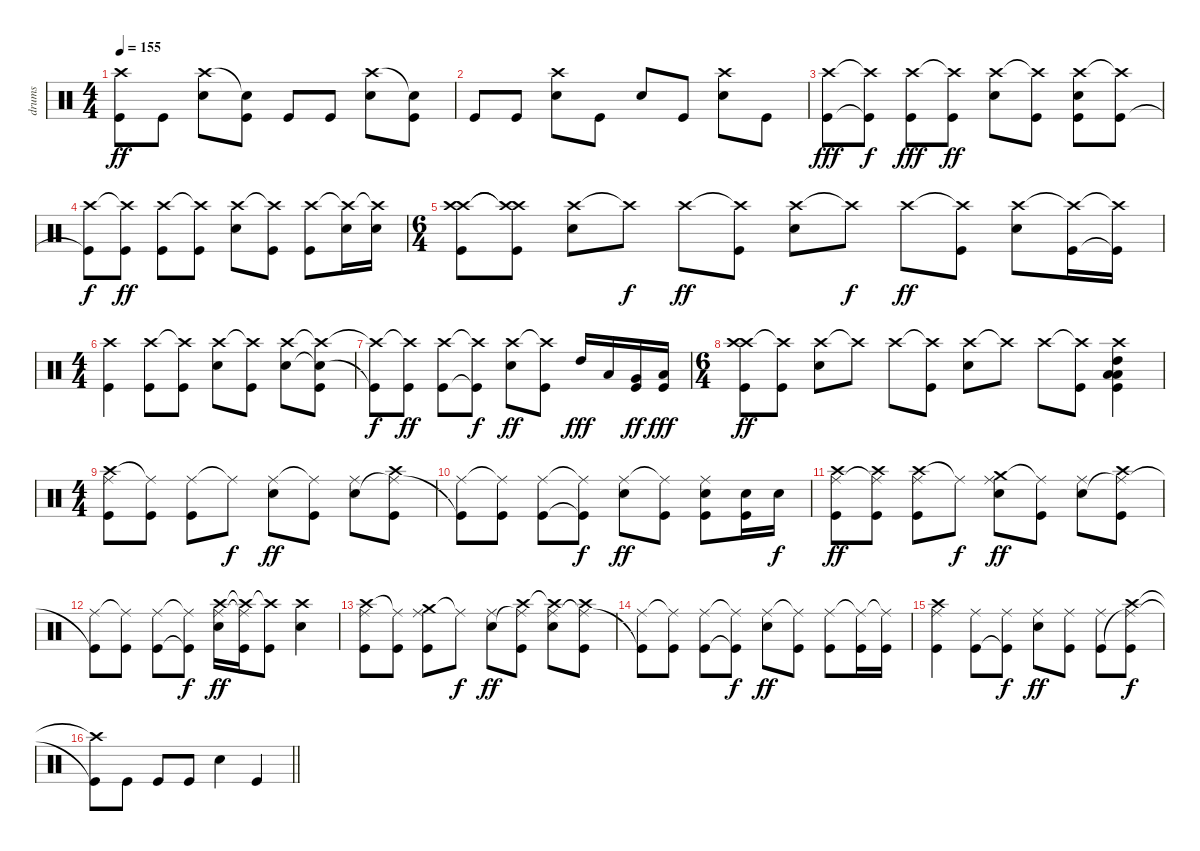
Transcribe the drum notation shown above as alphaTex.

\track ("drums" "drums") {instrument percussion}
\staff {score}
\articulation defaults
\ts (4 4)
\tempo 155
\clef neutral
\ks c
("Crash high (hit)"{t} "Kick (hit)"{t}).8{dy ff} "Kick (hit)".8 ("Crash high (hit)" "Electric Snare (hit)").8 ("Electric Snare (hit)"{t} "Kick (hit)").8 "Kick (hit)".8 "Kick (hit)".8 ("Crash high (hit)" "Electric Snare (hit)").8 ("Electric Snare (hit)"{t} "Kick (hit)").8 |
"Kick (hit)".8 "Kick (hit)".8 ("Crash high (hit)" "Electric Snare (hit)").8 "Kick (hit)".8 "Electric Snare (hit)".8 "Kick (hit)".8 ("Crash high (hit)" "Electric Snare (hit)").8 "Kick (hit)".8 |
("Crash high (hit)" "Kick (hit)").8{dy fff} ("Crash high (hit)"{t} "Kick (hit)"{t}).8{dy f} ("Crash high (hit)" "Kick (hit)").8{dy fff} ("Crash high (hit)"{t} "Kick (hit)").8{dy ff} ("Crash high (hit)" "Electric Snare (hit)").8 ("Crash high (hit)"{t} "Kick (hit)").8 ("Crash high (hit)" "Electric Snare (hit)" "Kick (hit)").8 ("Crash high (hit)"{t} "Kick (hit)").8 |
("Crash high (hit)" "Kick (hit)"{t}).8{dy f} ("Crash high (hit)"{t} "Kick (hit)").8{dy ff} ("Crash high (hit)" "Kick (hit)").8 ("Crash high (hit)"{t} "Kick (hit)").8 ("Crash high (hit)" "Electric Snare (hit)").8 ("Crash high (hit)"{t} "Kick (hit)").8 ("Crash high (hit)" "Kick (hit)").8 ("Crash high (hit)"{t} "Electric Snare (hit)").16 ("Crash high (hit)"{t} "Electric Snare (hit)").16 |
\ts (6 4)
("Crash high (hit)" "Crash high (hit)" "Kick (hit)").8 ("Crash high (hit)"{t} "Crash high (hit)"{t} "Kick (hit)").8 ("Crash high (hit)" "Electric Snare (hit)").8 "Crash high (hit)"{t}.8{dy f} "Crash high (hit)".8{dy ff} ("Crash high (hit)"{t} "Kick (hit)").8 ("Crash high (hit)" "Electric Snare (hit)").8 "Crash high (hit)"{t}.8{dy f} "Crash high (hit)".8{dy ff} ("Crash high (hit)"{t} "Kick (hit)").8 ("Crash high (hit)" "Electric Snare (hit)").8 ("Crash high (hit)"{t} "Kick (hit)").16 ("Crash high (hit)"{t} "Kick (hit)"{t}).16 |
\ts (4 4)
("Crash high (hit)" "Kick (hit)").4 ("Crash high (hit)" "Kick (hit)").8 ("Crash high (hit)"{t} "Kick (hit)").8 ("Crash high (hit)" "Electric Snare (hit)").8 ("Crash high (hit)"{t} "Kick (hit)").8 ("Crash high (hit)" "Electric Snare (hit)").8 ("Crash high (hit)"{t} "Electric Snare (hit)"{t} "Kick (hit)").8 |
("Crash high (hit)"{t} "Kick (hit)"{t}).8{dy f} ("Crash high (hit)"{t} "Kick (hit)").8{dy ff} ("Crash high (hit)" "Kick (hit)").8 ("Crash high (hit)"{t} "Kick (hit)"{t}).8{dy f} ("Crash high (hit)" "Electric Snare (hit)").8{dy ff} ("Crash high (hit)"{t} "Kick (hit)").8 "High Tom (hit)".16{dy fff} "Low Tom (hit)".16 ("Very Low Tom (hit)" "Kick (hit)").16{dy ff} ("Low Floor Tom (hit)" "Kick (hit)").16{dy fff} |
\ts (6 4)
("Crash high (hit)" "Crash high (hit)" "Kick (hit)").8{dy ff} ("Crash high (hit)"{t} "Kick (hit)").8 ("Crash high (hit)" "Electric Snare (hit)").8 "Crash high (hit)"{t}.8 "Crash high (hit)".8 ("Crash high (hit)"{t} "Kick (hit)").8 ("Crash high (hit)" "Electric Snare (hit)").8 "Crash high (hit)"{t}.8 "Crash high (hit)".8 ("Crash high (hit)"{t} "Kick (hit)").8 ("Crash high (hit)" "High Tom (hit)" "Low Tom (hit)" "Low Floor Tom (hit)" "Kick (hit)").4 |
\ts (4 4)
("Crash high (hit)" "Ride (middle)" "Kick (hit)").8 ("Ride (middle)"{t} "Kick (hit)").8 ("Ride (middle)" "Kick (hit)").8 "Ride (middle)"{t}.8{dy f} ("Ride (middle)" "Electric Snare (hit)").8{dy ff} ("Ride (middle)"{t} "Kick (hit)").8 ("Ride (middle)" "Electric Snare (hit)").8 ("Crash high (hit)" "Ride (middle)"{t} "Kick (hit)").8 |
("Ride (middle)" "Kick (hit)"{t}).8 ("Ride (middle)"{t} "Kick (hit)").8 ("Ride (middle)" "Kick (hit)").8 ("Ride (middle)"{t} "Kick (hit)"{t}).8{dy f} ("Ride (middle)" "Electric Snare (hit)").8{dy ff} ("Ride (middle)"{t} "Kick (hit)").8 ("Ride (middle)" "Electric Snare (hit)" "Kick (hit)").8 ("Electric Snare (hit)" "Kick (hit)").16 "Electric Snare (hit)".16{dy f} |
("Crash high (hit)" "Ride (middle)" "Kick (hit)").8{dy ff} ("Crash high (hit)" "Ride (middle)"{t} "Kick (hit)").8 ("Crash high (hit)" "Ride (middle)" "Kick (hit)").8 "Ride (middle)"{t}.8{dy f} ("Crash medium (hit)" "Ride (middle)" "Electric Snare (hit)").8{dy ff} ("Ride (middle)"{t} "Kick (hit)").8 ("Ride (middle)" "Electric Snare (hit)").8 ("Crash high (hit)" "Ride (middle)"{t} "Kick (hit)").8 |
("Ride (middle)" "Kick (hit)"{t}).8 ("Ride (middle)"{t} "Kick (hit)").8 ("Ride (middle)" "Kick (hit)").8 ("Ride (middle)"{t} "Kick (hit)"{t}).8{dy f} ("Crash high (hit)" "Ride (middle)" "Electric Snare (hit)").16{dy ff} ("Crash high (hit)"{t} "Ride (middle)"{t} "Kick (hit)").16 ("Crash high (hit)"{t} "Kick (hit)").8 ("Crash high (hit)" "Electric Snare (hit)").4 |
("Crash high (hit)" "Ride (middle)" "Kick (hit)").8 ("Ride (middle)"{t} "Kick (hit)").8 ("Crash medium (hit)" "Ride (middle)" "Kick (hit)").8 "Ride (middle)"{t}.8{dy f} ("Ride (middle)" "Electric Snare (hit)").8{dy ff} ("Crash high (hit)" "Ride (middle)"{t} "Kick (hit)").8 ("Crash high (hit)"{t} "Ride (middle)" "Electric Snare (hit)").8 ("Crash high (hit)" "Ride (middle)"{t} "Kick (hit)").8 |
("Ride (middle)" "Kick (hit)"{t}).8 ("Ride (middle)"{t} "Kick (hit)").8 ("Ride (middle)" "Kick (hit)").8 ("Ride (middle)"{t} "Kick (hit)"{t}).8{dy f} ("Ride (middle)" "Electric Snare (hit)").8{dy ff} ("Ride (middle)"{t} "Kick (hit)").8 ("Ride (middle)" "Kick (hit)").8 ("Ride (middle)"{t} "Kick (hit)").16 ("Ride (middle)"{t} "Kick (hit)").16 |
("Crash high (hit)" "Ride (middle)" "Kick (hit)").4 ("Ride (middle)" "Kick (hit)").8 ("Ride (middle)" "Kick (hit)"{t}).8{dy f} ("Ride (middle)" "Electric Snare (hit)").8{dy ff} ("Ride (middle)" "Kick (hit)").8 ("Ride (middle)" "Kick (hit)").8 ("Crash high (hit)" "Ride (middle)"{t} "Kick (hit)").8{dy f} |
\barLineRight lightlight
("Crash high (hit)"{t} "Kick (hit)"{t}).8 "Kick (hit)".8 "Kick (hit)".8 "Kick (hit)".8 "Electric Snare (hit)".4 "Kick (hit)".4
